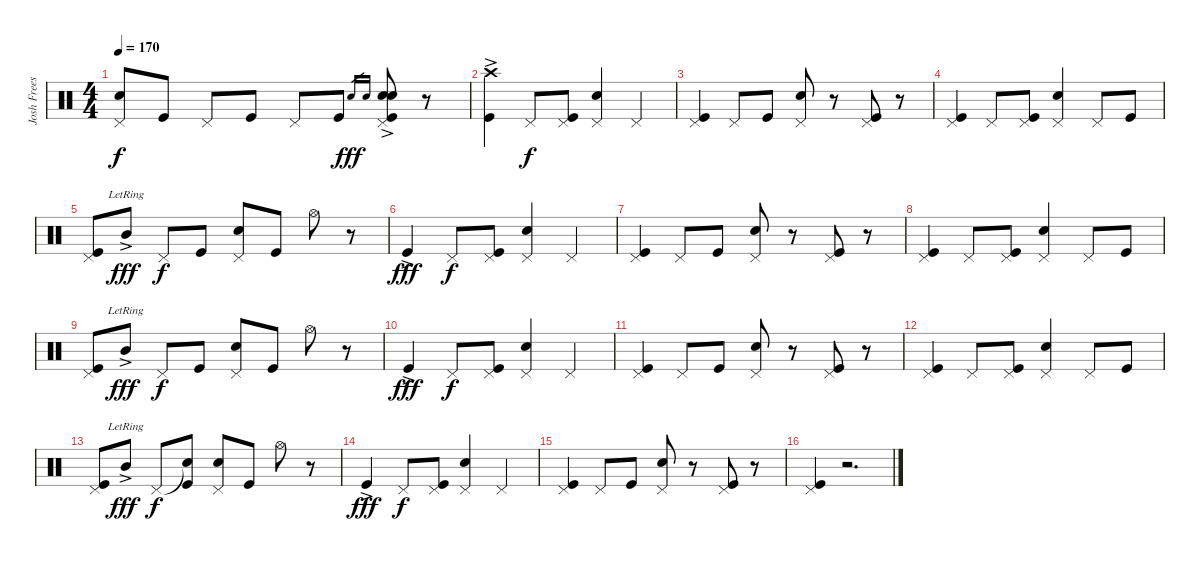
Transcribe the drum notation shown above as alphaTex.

\track ("Josh Freese - Drums" "Josh Frees") {instrument percussion}
\staff {score}
\articulation defaults
\ts (4 4)
\tempo 170
\clef neutral
\ks c
("Pedal Hi-Hat (hit)" "Electric Snare (hit)").8{dy f} "Kick (hit)".8 "Pedal Hi-Hat (hit)".8 "Kick (hit)".8 "Pedal Hi-Hat (hit)".8 "Kick (hit)".8 "Electric Snare (hit)".16{gr dy fff} "Electric Snare (hit)".16{gr} ("Pedal Hi-Hat (hit)" "Electric Snare (hit)"{ac} "Electric Snare (hit)"{ac} "Kick (hit)"{ac}).8 r.8 |
("Crash high (hit)"{ac} "Kick (hit)"{ac}).4 "Pedal Hi-Hat (hit)".8{dy f} ("Pedal Hi-Hat (hit)" "Kick (hit)").8 ("Pedal Hi-Hat (hit)" "Electric Snare (hit)").4 "Pedal Hi-Hat (hit)".4 |
("Pedal Hi-Hat (hit)" "Kick (hit)").4 "Pedal Hi-Hat (hit)".8 "Kick (hit)".8 ("Pedal Hi-Hat (hit)" "Electric Snare (hit)").8 r.8 ("Pedal Hi-Hat (hit)" "Kick (hit)").8 r.8 |
("Pedal Hi-Hat (hit)" "Kick (hit)").4 "Pedal Hi-Hat (hit)".8 ("Pedal Hi-Hat (hit)" "Kick (hit)").8 ("Pedal Hi-Hat (hit)" "Electric Snare (hit)").4 "Pedal Hi-Hat (hit)".8 "Kick (hit)".8 |
("Pedal Hi-Hat (hit)" "Kick (hit)").8 "Mid Tom (hit)"{ac lr}.8{dy fff} "Pedal Hi-Hat (hit)".8{dy f} "Kick (hit)".8 ("Pedal Hi-Hat (hit)" "Electric Snare (hit)").8 "Kick (hit)".8 "Hi-Hat (open)".8 r.8 |
"Kick (hit)"{ac}.4{dy fff} "Pedal Hi-Hat (hit)".8{dy f} ("Pedal Hi-Hat (hit)" "Kick (hit)").8 ("Pedal Hi-Hat (hit)" "Electric Snare (hit)").4 "Pedal Hi-Hat (hit)".4 |
("Pedal Hi-Hat (hit)" "Kick (hit)").4 "Pedal Hi-Hat (hit)".8 "Kick (hit)".8 ("Pedal Hi-Hat (hit)" "Electric Snare (hit)").8 r.8 ("Pedal Hi-Hat (hit)" "Kick (hit)").8 r.8 |
("Pedal Hi-Hat (hit)" "Kick (hit)").4 "Pedal Hi-Hat (hit)".8 ("Pedal Hi-Hat (hit)" "Kick (hit)").8 ("Pedal Hi-Hat (hit)" "Electric Snare (hit)").4 "Pedal Hi-Hat (hit)".8 "Kick (hit)".8 |
("Pedal Hi-Hat (hit)" "Kick (hit)").8 "Mid Tom (hit)"{ac lr}.8{dy fff} "Pedal Hi-Hat (hit)".8{dy f} "Kick (hit)".8 ("Pedal Hi-Hat (hit)" "Electric Snare (hit)").8 "Kick (hit)".8 "Hi-Hat (open)".8 r.8 |
"Kick (hit)"{ac}.4{dy fff} "Pedal Hi-Hat (hit)".8{dy f} ("Pedal Hi-Hat (hit)" "Kick (hit)").8 ("Pedal Hi-Hat (hit)" "Electric Snare (hit)").4 "Pedal Hi-Hat (hit)".4 |
("Pedal Hi-Hat (hit)" "Kick (hit)").4 "Pedal Hi-Hat (hit)".8 "Kick (hit)".8 ("Pedal Hi-Hat (hit)" "Electric Snare (hit)").8 r.8 ("Pedal Hi-Hat (hit)" "Kick (hit)").8 r.8 |
("Pedal Hi-Hat (hit)" "Kick (hit)").4 "Pedal Hi-Hat (hit)".8 ("Pedal Hi-Hat (hit)" "Kick (hit)").8 ("Pedal Hi-Hat (hit)" "Electric Snare (hit)").4 "Pedal Hi-Hat (hit)".8 "Kick (hit)".8 |
("Pedal Hi-Hat (hit)" "Kick (hit)").8 "Mid Tom (hit)"{ac lr}.8{dy fff} "Pedal Hi-Hat (hit)".8{dy f} ("Snare (hit)"{t} "Kick (hit)").8 ("Pedal Hi-Hat (hit)" "Electric Snare (hit)").8 "Kick (hit)".8 "Hi-Hat (open)".8 r.8 |
"Kick (hit)"{ac}.4{dy fff} "Pedal Hi-Hat (hit)".8{dy f} ("Pedal Hi-Hat (hit)" "Kick (hit)").8 ("Pedal Hi-Hat (hit)" "Electric Snare (hit)").4 "Pedal Hi-Hat (hit)".4 |
("Pedal Hi-Hat (hit)" "Kick (hit)").4 "Pedal Hi-Hat (hit)".8 "Kick (hit)".8 ("Pedal Hi-Hat (hit)" "Electric Snare (hit)").8 r.8 ("Pedal Hi-Hat (hit)" "Kick (hit)").8 r.8 |
("Pedal Hi-Hat (hit)" "Kick (hit)").4 r.2{d}
